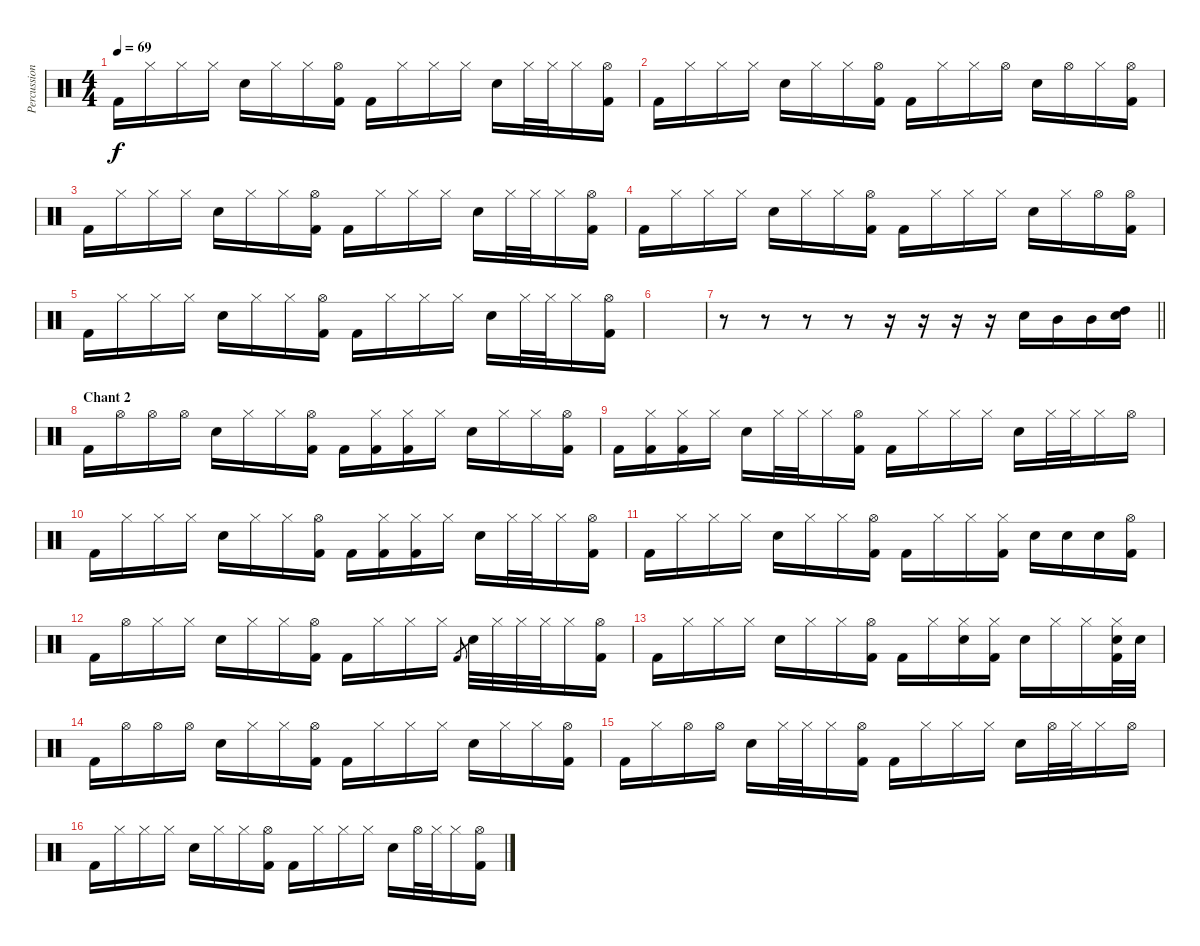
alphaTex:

\track ("Percussions" "Percussion") {instrument percussion}
\staff {score}
\articulation defaults
\ts (4 4)
\tempo 69
\clef neutral
\ks c "Kick (hit) 2".16{dy f} "Hi-Hat (closed)".16 "Hi-Hat (closed)".16 "Hi-Hat (closed)".16 "Electric Snare (hit)".16 "Hi-Hat (closed)".16 "Hi-Hat (closed)".16
("Hi-Hat (open)" "Kick (hit) 2").16 "Kick (hit) 2".16 "Hi-Hat (closed)".16 "Hi-Hat (closed)".16 "Hi-Hat (closed)".16 "Electric Snare (hit)".16 "Hi-Hat (closed)".32 "Hi-Hat (closed)".32 "Hi-Hat (closed)".16 ("Hi-Hat (open)" "Kick (hit) 2").16 |
"Kick (hit) 2".16 "Hi-Hat (closed)".16 "Hi-Hat (closed)".16 "Hi-Hat (closed)".16 "Electric Snare (hit)".16 "Hi-Hat (closed)".16 "Hi-Hat (closed)".16 ("Hi-Hat (open)" "Kick (hit) 2").16 "Kick (hit) 2".16 "Hi-Hat (closed)".16 "Hi-Hat (closed)".16 "Hi-Hat (open)".16 "Electric Snare (hit)".16 "Hi-Hat (open)".16 "Hi-Hat (closed)".16 ("Hi-Hat (open)" "Kick (hit) 2").16 |
"Kick (hit) 2".16 "Hi-Hat (closed)".16 "Hi-Hat (closed)".16 "Hi-Hat (closed)".16 "Electric Snare (hit)".16 "Hi-Hat (closed)".16 "Hi-Hat (closed)".16 ("Hi-Hat (open)" "Kick (hit) 2").16 "Kick (hit) 2".16 "Hi-Hat (closed)".16 "Hi-Hat (closed)".16 "Hi-Hat (closed)".16 "Electric Snare (hit)".16 "Hi-Hat (closed)".32 "Hi-Hat (closed)".32 "Hi-Hat (closed)".16 ("Hi-Hat (open)" "Kick (hit) 2").16 |
"Kick (hit) 2".16 "Hi-Hat (closed)".16 "Hi-Hat (closed)".16 "Hi-Hat (closed)".16 "Electric Snare (hit)".16 "Hi-Hat (closed)".16 "Hi-Hat (closed)".16 ("Hi-Hat (open)" "Kick (hit) 2").16 "Kick (hit) 2".16 "Hi-Hat (closed)".16 "Hi-Hat (closed)".16 "Hi-Hat (closed)".16 "Electric Snare (hit)".16 "Hi-Hat (closed)".16 "Hi-Hat (open)".16 ("Hi-Hat (open)" "Kick (hit) 2").16 |
"Kick (hit) 2".16 "Hi-Hat (closed)".16 "Hi-Hat (closed)".16 "Hi-Hat (closed)".16 "Electric Snare (hit)".16 "Hi-Hat (closed)".16 "Hi-Hat (closed)".16 ("Hi-Hat (open)" "Kick (hit) 2").16 "Kick (hit) 2".16 "Hi-Hat (closed)".16 "Hi-Hat (closed)".16 "Hi-Hat (closed)".16 "Electric Snare (hit)".16 "Hi-Hat (closed)".32 "Hi-Hat (closed)".32 "Hi-Hat (closed)".16 ("Hi-Hat (open)" "Kick (hit) 2").16 |
|
\barLineRight lightlight
r.8 r.8 r.8 r.8 r.16 r.16 r.16 r.16 "Electric Snare (hit)".16 "Mid Tom (hit)".16 "Mid Tom (hit)".16 ("Electric Snare (hit)" "High Tom (hit)").16 |
\section ("" "Chant 2")
"Kick (hit) 2".16 "Hi-Hat (open)".16 "Hi-Hat (open)".16 "Hi-Hat (open)".16 "Electric Snare (hit)".16 "Hi-Hat (closed)".16 "Hi-Hat (closed)".16 ("Hi-Hat (open)" "Kick (hit) 2").16 "Kick (hit) 2".16 ("Hi-Hat (closed)" "Kick (hit) 2").16 ("Hi-Hat (closed)" "Kick (hit) 2").16 "Hi-Hat (closed)".16 "Electric Snare (hit)".16 "Hi-Hat (closed)".16 "Hi-Hat (closed)".16 ("Hi-Hat (open)" "Kick (hit) 2").16 |
"Kick (hit) 2".16 ("Hi-Hat (closed)" "Kick (hit) 2").16 ("Hi-Hat (closed)" "Kick (hit) 2").16 "Hi-Hat (closed)".16 "Electric Snare (hit)".16 "Hi-Hat (closed)".32 "Hi-Hat (closed)".32 "Hi-Hat (closed)".16 ("Hi-Hat (open)" "Kick (hit) 2").16 "Kick (hit) 2".16 "Hi-Hat (closed)".16 "Hi-Hat (closed)".16 "Hi-Hat (closed)".16 "Electric Snare (hit)".16 "Hi-Hat (closed)".32 "Hi-Hat (closed)".32 "Hi-Hat (closed)".16 "Hi-Hat (open)".16 |
"Kick (hit) 2".16 "Hi-Hat (closed)".16 "Hi-Hat (closed)".16 "Hi-Hat (closed)".16 "Electric Snare (hit)".16 "Hi-Hat (closed)".16 "Hi-Hat (closed)".16 ("Hi-Hat (open)" "Kick (hit) 2").16 "Kick (hit) 2".16 ("Hi-Hat (closed)" "Kick (hit) 2").16 ("Hi-Hat (closed)" "Kick (hit) 2").16 "Hi-Hat (closed)".16 "Electric Snare (hit)".16 "Hi-Hat (closed)".32 "Hi-Hat (closed)".32 "Hi-Hat (closed)".16 ("Hi-Hat (open)" "Kick (hit) 2").16 |
"Kick (hit) 2".16 "Hi-Hat (closed)".16 "Hi-Hat (closed)".16 "Hi-Hat (closed)".16 "Electric Snare (hit)".16 "Hi-Hat (closed)".16 "Hi-Hat (closed)".16 ("Hi-Hat (open)" "Kick (hit) 2").16 "Kick (hit) 2".16 "Hi-Hat (closed)".16 "Hi-Hat (closed)".16 ("Hi-Hat (closed)" "Kick (hit) 2").16 "Electric Snare (hit)".16 "Electric Snare (hit)".16 "Electric Snare (hit)".16 ("Hi-Hat (open)" "Kick (hit) 2").16 |
"Kick (hit) 2".16 "Hi-Hat (open)".16 "Hi-Hat (closed)".16 "Hi-Hat (closed)".16 "Electric Snare (hit)".16 "Hi-Hat (closed)".16 "Hi-Hat (closed)".16 ("Hi-Hat (open)" "Kick (hit) 2").16 "Kick (hit) 2".16 "Hi-Hat (closed)".16 "Hi-Hat (closed)".16 "Hi-Hat (closed)".16 "Kick (hit) 2".8{gr} "Electric Snare (hit)".32 "Hi-Hat (closed)".32 "Hi-Hat (closed)".32 "Hi-Hat (closed)".32 "Hi-Hat (closed)".16 ("Hi-Hat (open)" "Kick (hit) 2").16 |
"Kick (hit) 2".16 "Hi-Hat (closed)".16 "Hi-Hat (closed)".16 "Hi-Hat (closed)".16 "Electric Snare (hit)".16 "Hi-Hat (closed)".16 "Hi-Hat (closed)".16 ("Hi-Hat (open)" "Kick (hit) 2").16 "Kick (hit) 2".16 "Hi-Hat (closed)".16 ("Hi-Hat (closed)" "Electric Snare (hit)").16 ("Hi-Hat (closed)" "Kick (hit) 2").16 "Electric Snare (hit)".16 "Hi-Hat (closed)".16 "Hi-Hat (closed)".16 ("Hi-Hat (closed)" "Electric Snare (hit)" "Kick (hit) 2").32 "Electric Snare (hit)".32 |
"Kick (hit) 2".16 "Hi-Hat (open)".16 "Hi-Hat (open)".16 "Hi-Hat (open)".16 "Electric Snare (hit)".16 "Hi-Hat (closed)".16 "Hi-Hat (closed)".16 ("Hi-Hat (open)" "Kick (hit) 2").16 "Kick (hit) 2".16 "Hi-Hat (closed)".16 "Hi-Hat (closed)".16 "Hi-Hat (closed)".16 "Electric Snare (hit)".16 "Hi-Hat (closed)".16 "Hi-Hat (closed)".16 ("Hi-Hat (open)" "Kick (hit) 2").16 |
"Kick (hit) 2".16 "Hi-Hat (closed)".16 "Hi-Hat (open)".16 "Hi-Hat (open)".16 "Electric Snare (hit)".16 "Hi-Hat (closed)".32 "Hi-Hat (closed)".32 "Hi-Hat (closed)".16 ("Hi-Hat (open)" "Kick (hit) 2").16 "Kick (hit) 2".16 "Hi-Hat (closed)".16 "Hi-Hat (closed)".16 "Hi-Hat (closed)".16 "Electric Snare (hit)".16 "Hi-Hat (open)".32 "Hi-Hat (closed)".32 "Hi-Hat (closed)".16 "Hi-Hat (open)".16 |
"Kick (hit) 2".16 "Hi-Hat (closed)".16 "Hi-Hat (closed)".16 "Hi-Hat (closed)".16 "Electric Snare (hit)".16 "Hi-Hat (closed)".16 "Hi-Hat (closed)".16 ("Hi-Hat (open)" "Kick (hit) 2").16 "Kick (hit) 2".16 "Hi-Hat (closed)".16 "Hi-Hat (closed)".16 "Hi-Hat (closed)".16 "Electric Snare (hit)".16 "Hi-Hat (open)".32 "Hi-Hat (closed)".32 "Hi-Hat (closed)".16 ("Hi-Hat (open)" "Kick (hit) 2").16
